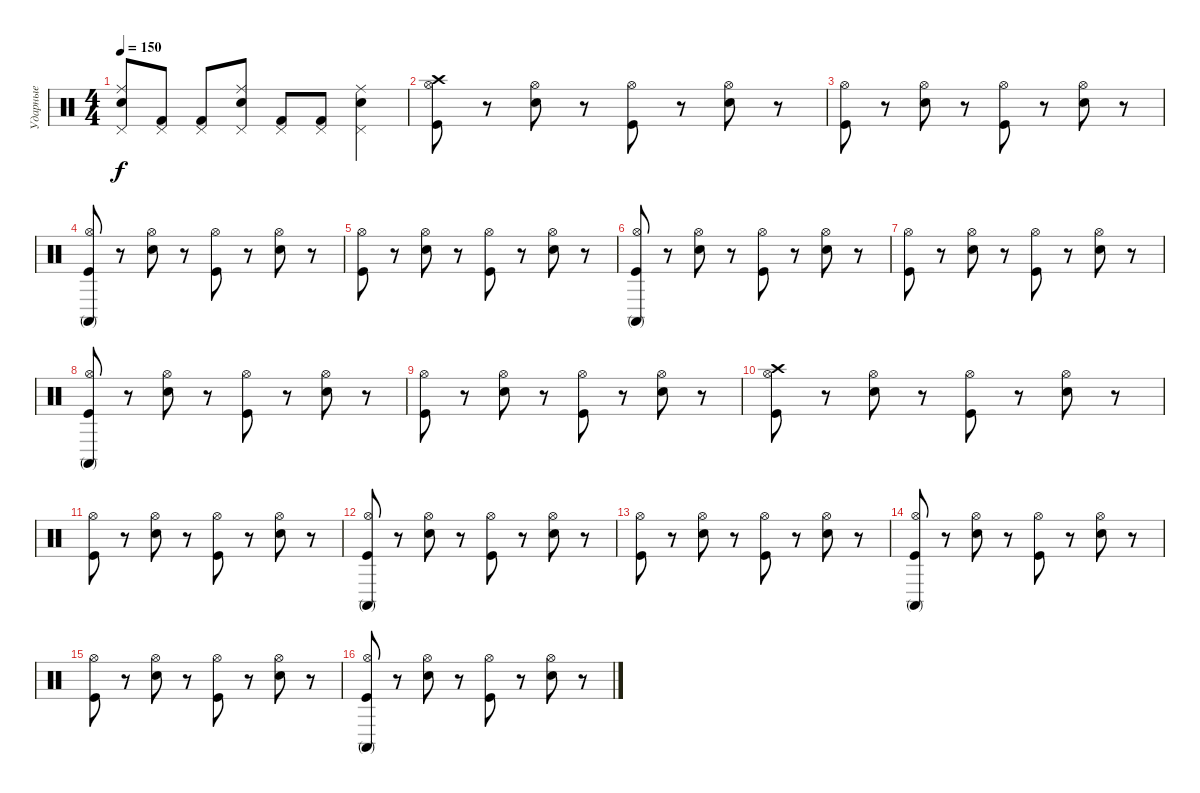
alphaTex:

\track ("Ударные" "Ударные") {instrument percussion}
\staff {score}
\articulation defaults
\ts (4 4)
\tempo 150
\clef neutral
\ks c
("Electric Snare (hit)" "Pedal Hi-Hat (hit)" "Ride (middle)").8{dy f} ("Kick (hit) 2" "Pedal Hi-Hat (hit)").8 ("Kick (hit) 2" "Pedal Hi-Hat (hit)").8 ("Electric Snare (hit)" "Pedal Hi-Hat (hit)" "Ride (middle)").8 ("Kick (hit) 2" "Pedal Hi-Hat (hit)").8 ("Kick (hit) 2" "Pedal Hi-Hat (hit)").8 ("Electric Snare (hit)" "Pedal Hi-Hat (hit)" "Ride (middle)").4 |
("Hi-Hat (open)" "Kick (hit)" "Crash high (hit)").8 r.8 ("Hi-Hat (open)" "Snare (hit) 2").8 r.8 ("Hi-Hat (open)" "Kick (hit)").8 r.8 ("Hi-Hat (open)" "Snare (hit) 2").8 r.8 |
("Hi-Hat (open)" "Kick (hit)").8 r.8 ("Hi-Hat (open)" "Snare (hit) 2").8 r.8 ("Hi-Hat (open)" "Kick (hit)").8 r.8 ("Hi-Hat (open)" "Snare (hit) 2").8 r.8 |
("Hi-Hat (open)" "Kick (hit)" "Conga high (mute)").8 r.8 ("Hi-Hat (open)" "Snare (hit) 2").8 r.8 ("Hi-Hat (open)" "Kick (hit)").8 r.8 ("Hi-Hat (open)" "Snare (hit) 2").8 r.8 |
("Hi-Hat (open)" "Kick (hit)").8 r.8 ("Hi-Hat (open)" "Snare (hit) 2").8 r.8 ("Hi-Hat (open)" "Kick (hit)").8 r.8 ("Hi-Hat (open)" "Snare (hit) 2").8 r.8 |
("Hi-Hat (open)" "Kick (hit)" "Conga high (mute)").8 r.8 ("Hi-Hat (open)" "Snare (hit) 2").8 r.8 ("Hi-Hat (open)" "Kick (hit)").8 r.8 ("Hi-Hat (open)" "Snare (hit) 2").8 r.8 |
("Hi-Hat (open)" "Kick (hit)").8 r.8 ("Hi-Hat (open)" "Snare (hit) 2").8 r.8 ("Hi-Hat (open)" "Kick (hit)").8 r.8 ("Hi-Hat (open)" "Snare (hit) 2").8 r.8 |
("Hi-Hat (open)" "Kick (hit)" "Conga high (mute)").8 r.8 ("Hi-Hat (open)" "Snare (hit) 2").8 r.8 ("Hi-Hat (open)" "Kick (hit)").8 r.8 ("Hi-Hat (open)" "Snare (hit) 2").8 r.8 |
("Hi-Hat (open)" "Kick (hit)").8 r.8 ("Hi-Hat (open)" "Snare (hit) 2").8 r.8 ("Hi-Hat (open)" "Kick (hit)").8 r.8 ("Hi-Hat (open)" "Snare (hit) 2").8 r.8 |
("Hi-Hat (open)" "Kick (hit)" "Crash high (hit)").8 r.8 ("Hi-Hat (open)" "Snare (hit) 2").8 r.8 ("Hi-Hat (open)" "Kick (hit)").8 r.8 ("Hi-Hat (open)" "Snare (hit) 2").8 r.8 |
("Hi-Hat (open)" "Kick (hit)").8 r.8 ("Hi-Hat (open)" "Snare (hit) 2").8 r.8 ("Hi-Hat (open)" "Kick (hit)").8 r.8 ("Hi-Hat (open)" "Snare (hit) 2").8 r.8 |
("Hi-Hat (open)" "Kick (hit)" "Conga high (mute)").8 r.8 ("Hi-Hat (open)" "Snare (hit) 2").8 r.8 ("Hi-Hat (open)" "Kick (hit)").8 r.8 ("Hi-Hat (open)" "Snare (hit) 2").8 r.8 |
("Hi-Hat (open)" "Kick (hit)").8 r.8 ("Hi-Hat (open)" "Snare (hit) 2").8 r.8 ("Hi-Hat (open)" "Kick (hit)").8 r.8 ("Hi-Hat (open)" "Snare (hit) 2").8 r.8 |
("Hi-Hat (open)" "Kick (hit)" "Conga high (mute)").8 r.8 ("Hi-Hat (open)" "Snare (hit) 2").8 r.8 ("Hi-Hat (open)" "Kick (hit)").8 r.8 ("Hi-Hat (open)" "Snare (hit) 2").8 r.8 |
("Hi-Hat (open)" "Kick (hit)").8 r.8 ("Hi-Hat (open)" "Snare (hit) 2").8 r.8 ("Hi-Hat (open)" "Kick (hit)").8 r.8 ("Hi-Hat (open)" "Snare (hit) 2").8 r.8 |
("Hi-Hat (open)" "Kick (hit)" "Conga high (mute)").8 r.8 ("Hi-Hat (open)" "Snare (hit) 2").8 r.8 ("Hi-Hat (open)" "Kick (hit)").8 r.8 ("Hi-Hat (open)" "Snare (hit) 2").8 r.8
